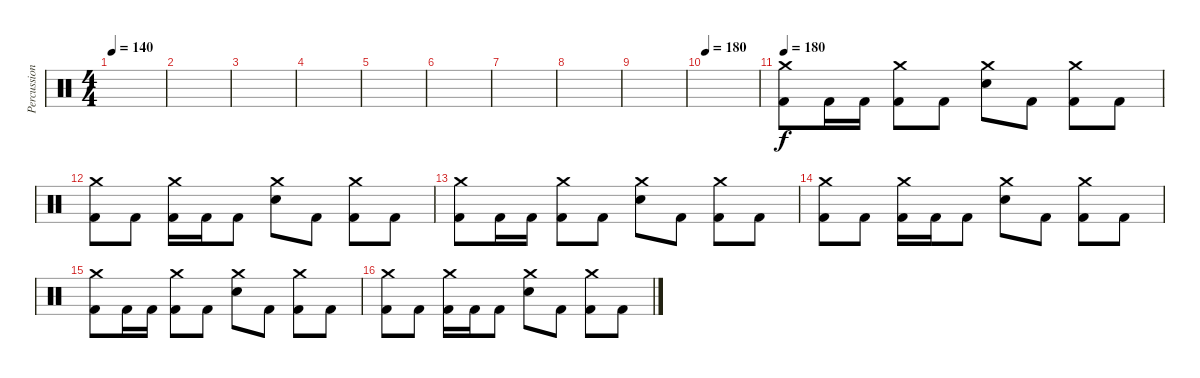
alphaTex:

\track ("Percussion" "Percussion") {instrument percussion}
\staff {score}
\articulation defaults
\ts (4 4)
\tempo 140
\clef neutral
\ks c
|
|
|
|
|
|
|
|
|
\tempo 180
|
\tempo 180
("Crash medium (hit)" "Kick (hit) 2").8 "Kick (hit) 2".16 "Kick (hit) 2".16 ("Crash medium (hit)" "Kick (hit) 2").8 "Kick (hit) 2".8 ("Electric Snare (hit)" "Crash medium (hit)").8 "Kick (hit) 2".8 ("Crash medium (hit)" "Kick (hit) 2").8 "Kick (hit) 2".8 |
("Crash medium (hit)" "Kick (hit) 2").8 "Kick (hit) 2".8 ("Crash medium (hit)" "Kick (hit) 2").16 "Kick (hit) 2".16 "Kick (hit) 2".8 ("Electric Snare (hit)" "Crash medium (hit)").8 "Kick (hit) 2".8 ("Crash medium (hit)" "Kick (hit) 2").8 "Kick (hit) 2".8 |
("Crash medium (hit)" "Kick (hit) 2").8 "Kick (hit) 2".16 "Kick (hit) 2".16 ("Crash medium (hit)" "Kick (hit) 2").8 "Kick (hit) 2".8 ("Electric Snare (hit)" "Crash medium (hit)").8 "Kick (hit) 2".8 ("Crash medium (hit)" "Kick (hit) 2").8 "Kick (hit) 2".8 |
("Crash medium (hit)" "Kick (hit) 2").8 "Kick (hit) 2".8 ("Crash medium (hit)" "Kick (hit) 2").16 "Kick (hit) 2".16 "Kick (hit) 2".8 ("Electric Snare (hit)" "Crash medium (hit)").8 "Kick (hit) 2".8 ("Crash medium (hit)" "Kick (hit) 2").8 "Kick (hit) 2".8 |
("Crash medium (hit)" "Kick (hit) 2").8 "Kick (hit) 2".16 "Kick (hit) 2".16 ("Crash medium (hit)" "Kick (hit) 2").8 "Kick (hit) 2".8 ("Electric Snare (hit)" "Crash medium (hit)").8 "Kick (hit) 2".8 ("Crash medium (hit)" "Kick (hit) 2").8 "Kick (hit) 2".8 |
("Crash medium (hit)" "Kick (hit) 2").8 "Kick (hit) 2".8 ("Crash medium (hit)" "Kick (hit) 2").16 "Kick (hit) 2".16 "Kick (hit) 2".8 ("Electric Snare (hit)" "Crash medium (hit)").8 "Kick (hit) 2".8 ("Crash medium (hit)" "Kick (hit) 2").8 "Kick (hit) 2".8
